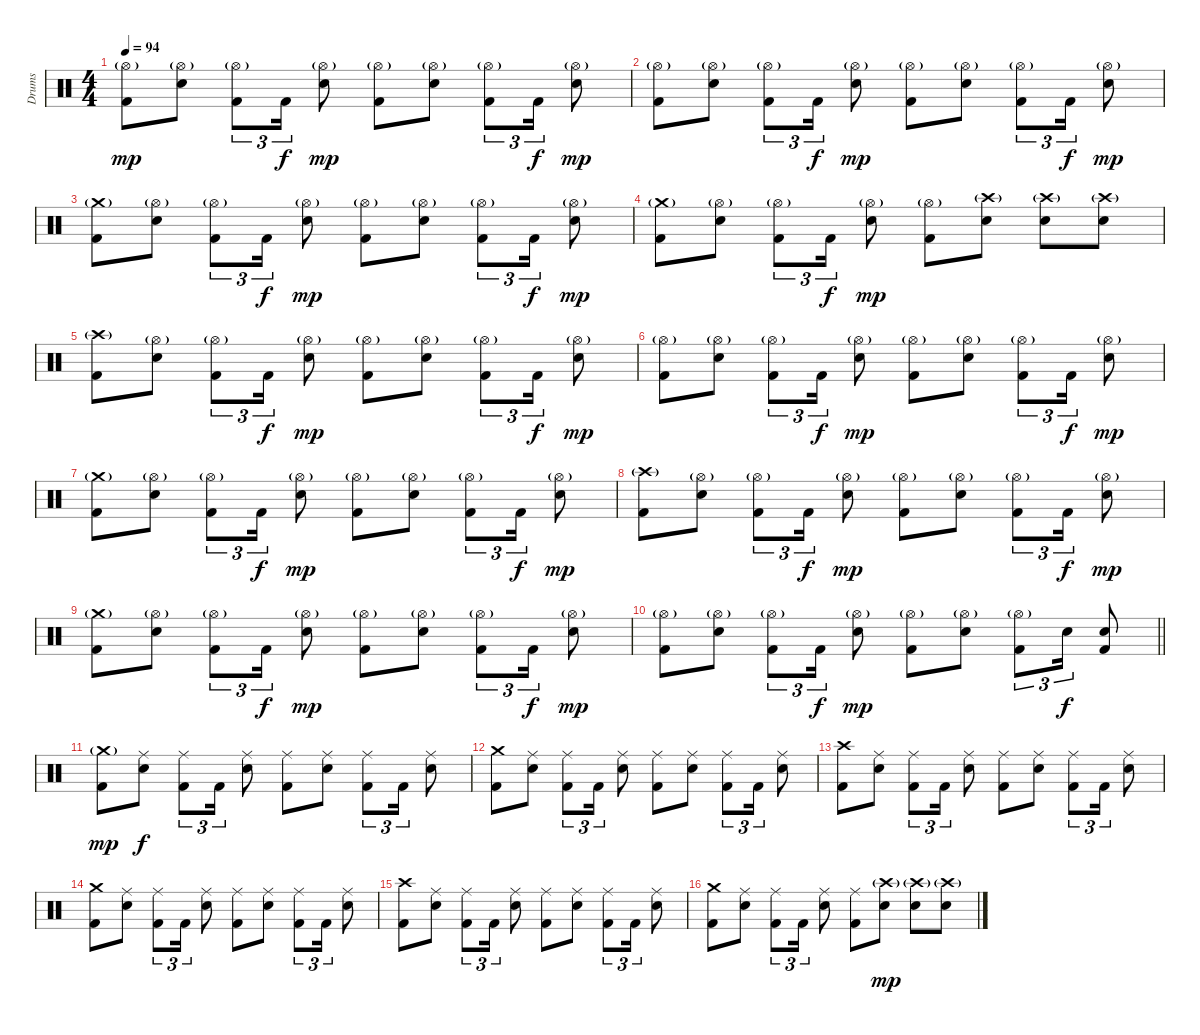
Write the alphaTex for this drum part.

\track ("Drums" "Drums") {instrument percussion}
\staff {score}
\articulation defaults
\ts (4 4)
\tempo 94
\clef neutral
\ks c
("Hi-Hat (open)"{g} "Kick (hit) 2").8{dy mp} ("Hi-Hat (open)"{g} "Electric Snare (hit)").8 ("Hi-Hat (open)"{g} "Kick (hit) 2").8{tu (3 2)} "Kick (hit) 2".16{tu (3 2) dy f} ("Hi-Hat (open)"{g} "Electric Snare (hit)").8{dy mp} ("Hi-Hat (open)"{g} "Kick (hit) 2").8 ("Hi-Hat (open)"{g} "Electric Snare (hit)").8 ("Hi-Hat (open)"{g} "Kick (hit) 2").8{tu (3 2)} "Kick (hit) 2".16{tu (3 2) dy f} ("Hi-Hat (open)"{g} "Electric Snare (hit)").8{dy mp} |
("Hi-Hat (open)"{g} "Kick (hit) 2").8 ("Hi-Hat (open)"{g} "Electric Snare (hit)").8 ("Hi-Hat (open)"{g} "Kick (hit) 2").8{tu (3 2)} "Kick (hit) 2".16{tu (3 2) dy f} ("Hi-Hat (open)"{g} "Electric Snare (hit)").8{dy mp} ("Hi-Hat (open)"{g} "Kick (hit) 2").8 ("Hi-Hat (open)"{g} "Electric Snare (hit)").8 ("Hi-Hat (open)"{g} "Kick (hit) 2").8{tu (3 2)} "Kick (hit) 2".16{tu (3 2) dy f} ("Hi-Hat (open)"{g} "Electric Snare (hit)").8{dy mp} |
("Crash medium (hit)"{g} "Kick (hit) 2").8 ("Hi-Hat (open)"{g} "Electric Snare (hit)").8 ("Hi-Hat (open)"{g} "Kick (hit) 2").8{tu (3 2)} "Kick (hit) 2".16{tu (3 2) dy f} ("Hi-Hat (open)"{g} "Electric Snare (hit)").8{dy mp} ("Hi-Hat (open)"{g} "Kick (hit) 2").8 ("Hi-Hat (open)"{g} "Electric Snare (hit)").8 ("Hi-Hat (open)"{g} "Kick (hit) 2").8{tu (3 2)} "Kick (hit) 2".16{tu (3 2) dy f} ("Hi-Hat (open)"{g} "Electric Snare (hit)").8{dy mp} |
("Crash medium (hit)"{g} "Kick (hit) 2").8 ("Hi-Hat (open)"{g} "Electric Snare (hit)").8 ("Hi-Hat (open)"{g} "Kick (hit) 2").8{tu (3 2)} "Kick (hit) 2".16{tu (3 2) dy f} ("Hi-Hat (open)"{g} "Electric Snare (hit)").8{dy mp} ("Hi-Hat (open)"{g} "Kick (hit) 2").8 ("Crash high (hit)"{g} "Electric Snare (hit)").8 ("Crash high (hit)"{g} "Electric Snare (hit)").8 ("Crash high (hit)"{g} "Electric Snare (hit)").8 |
("Crash high (hit)"{g} "Kick (hit) 2").8 ("Hi-Hat (open)"{g} "Electric Snare (hit)").8 ("Hi-Hat (open)"{g} "Kick (hit) 2").8{tu (3 2)} "Kick (hit) 2".16{tu (3 2) dy f} ("Hi-Hat (open)"{g} "Electric Snare (hit)").8{dy mp} ("Hi-Hat (open)"{g} "Kick (hit) 2").8 ("Hi-Hat (open)"{g} "Electric Snare (hit)").8 ("Hi-Hat (open)"{g} "Kick (hit) 2").8{tu (3 2)} "Kick (hit) 2".16{tu (3 2) dy f} ("Hi-Hat (open)"{g} "Electric Snare (hit)").8{dy mp} |
("Hi-Hat (open)"{g} "Kick (hit) 2").8 ("Hi-Hat (open)"{g} "Electric Snare (hit)").8 ("Hi-Hat (open)"{g} "Kick (hit) 2").8{tu (3 2)} "Kick (hit) 2".16{tu (3 2) dy f} ("Hi-Hat (open)"{g} "Electric Snare (hit)").8{dy mp} ("Hi-Hat (open)"{g} "Kick (hit) 2").8 ("Hi-Hat (open)"{g} "Electric Snare (hit)").8 ("Hi-Hat (open)"{g} "Kick (hit) 2").8{tu (3 2)} "Kick (hit) 2".16{tu (3 2) dy f} ("Hi-Hat (open)"{g} "Electric Snare (hit)").8{dy mp} |
("Crash medium (hit)"{g} "Kick (hit) 2").8 ("Hi-Hat (open)"{g} "Electric Snare (hit)").8 ("Hi-Hat (open)"{g} "Kick (hit) 2").8{tu (3 2)} "Kick (hit) 2".16{tu (3 2) dy f} ("Hi-Hat (open)"{g} "Electric Snare (hit)").8{dy mp} ("Hi-Hat (open)"{g} "Kick (hit) 2").8 ("Hi-Hat (open)"{g} "Electric Snare (hit)").8 ("Hi-Hat (open)"{g} "Kick (hit) 2").8{tu (3 2)} "Kick (hit) 2".16{tu (3 2) dy f} ("Hi-Hat (open)"{g} "Electric Snare (hit)").8{dy mp} |
("Crash high (hit)"{g} "Kick (hit) 2").8 ("Hi-Hat (open)"{g} "Electric Snare (hit)").8 ("Hi-Hat (open)"{g} "Kick (hit) 2").8{tu (3 2)} "Kick (hit) 2".16{tu (3 2) dy f} ("Hi-Hat (open)"{g} "Electric Snare (hit)").8{dy mp} ("Hi-Hat (open)"{g} "Kick (hit) 2").8 ("Hi-Hat (open)"{g} "Electric Snare (hit)").8 ("Hi-Hat (open)"{g} "Kick (hit) 2").8{tu (3 2)} "Kick (hit) 2".16{tu (3 2) dy f} ("Hi-Hat (open)"{g} "Electric Snare (hit)").8{dy mp} |
("Crash medium (hit)"{g} "Kick (hit) 2").8 ("Hi-Hat (open)"{g} "Electric Snare (hit)").8 ("Hi-Hat (open)"{g} "Kick (hit) 2").8{tu (3 2)} "Kick (hit) 2".16{tu (3 2) dy f} ("Hi-Hat (open)"{g} "Electric Snare (hit)").8{dy mp} ("Hi-Hat (open)"{g} "Kick (hit) 2").8 ("Hi-Hat (open)"{g} "Electric Snare (hit)").8 ("Hi-Hat (open)"{g} "Kick (hit) 2").8{tu (3 2)} "Kick (hit) 2".16{tu (3 2) dy f} ("Hi-Hat (open)"{g} "Electric Snare (hit)").8{dy mp} |
\barLineRight lightlight
("Hi-Hat (open)"{g} "Kick (hit) 2").8 ("Hi-Hat (open)"{g} "Electric Snare (hit)").8 ("Hi-Hat (open)"{g} "Kick (hit) 2").8{tu (3 2)} "Kick (hit) 2".16{tu (3 2) dy f} ("Hi-Hat (open)"{g} "Electric Snare (hit)").8{dy mp} ("Hi-Hat (open)"{g} "Kick (hit) 2").8 ("Hi-Hat (open)"{g} "Electric Snare (hit)").8 ("Hi-Hat (open)"{g} "Kick (hit) 2").8{tu (3 2)} "Electric Snare (hit)".16{tu (3 2) dy f} ("Electric Snare (hit)" "Kick (hit) 2").8 |
("Crash medium (hit)"{g} "Kick (hit) 2").8{dy mp} ("Ride (middle)" "Electric Snare (hit)").8{dy f} ("Ride (middle)" "Kick (hit) 2").8{tu (3 2)} "Kick (hit) 2".16{tu (3 2)} ("Ride (middle)" "Electric Snare (hit)").8 ("Ride (middle)" "Kick (hit) 2").8 ("Ride (middle)" "Electric Snare (hit)").8 ("Ride (middle)" "Kick (hit) 2").8{tu (3 2)} "Kick (hit) 2".16{tu (3 2)} ("Ride (middle)" "Electric Snare (hit)").8 |
("Crash medium (hit)" "Kick (hit) 2").8 ("Ride (middle)" "Electric Snare (hit)").8 ("Ride (middle)" "Kick (hit) 2").8{tu (3 2)} "Kick (hit) 2".16{tu (3 2)} ("Ride (middle)" "Electric Snare (hit)").8 ("Ride (middle)" "Kick (hit) 2").8 ("Ride (middle)" "Electric Snare (hit)").8 ("Ride (middle)" "Kick (hit) 2").8{tu (3 2)} "Kick (hit) 2".16{tu (3 2)} ("Ride (middle)" "Electric Snare (hit)").8 |
("Crash high (hit)" "Kick (hit) 2").8 ("Ride (middle)" "Electric Snare (hit)").8 ("Ride (middle)" "Kick (hit) 2").8{tu (3 2)} "Kick (hit) 2".16{tu (3 2)} ("Ride (middle)" "Electric Snare (hit)").8 ("Ride (middle)" "Kick (hit) 2").8 ("Ride (middle)" "Electric Snare (hit)").8 ("Ride (middle)" "Kick (hit) 2").8{tu (3 2)} "Kick (hit) 2".16{tu (3 2)} ("Ride (middle)" "Electric Snare (hit)").8 |
("Crash medium (hit)" "Kick (hit) 2").8 ("Ride (middle)" "Electric Snare (hit)").8 ("Ride (middle)" "Kick (hit) 2").8{tu (3 2)} "Kick (hit) 2".16{tu (3 2)} ("Ride (middle)" "Electric Snare (hit)").8 ("Ride (middle)" "Kick (hit) 2").8 ("Ride (middle)" "Electric Snare (hit)").8 ("Ride (middle)" "Kick (hit) 2").8{tu (3 2)} "Kick (hit) 2".16{tu (3 2)} ("Ride (middle)" "Electric Snare (hit)").8 |
("Crash high (hit)" "Kick (hit) 2").8 ("Ride (middle)" "Electric Snare (hit)").8 ("Ride (middle)" "Kick (hit) 2").8{tu (3 2)} "Kick (hit) 2".16{tu (3 2)} ("Ride (middle)" "Electric Snare (hit)").8 ("Ride (middle)" "Kick (hit) 2").8 ("Ride (middle)" "Electric Snare (hit)").8 ("Ride (middle)" "Kick (hit) 2").8{tu (3 2)} "Kick (hit) 2".16{tu (3 2)} ("Ride (middle)" "Electric Snare (hit)").8 |
("Crash medium (hit)" "Kick (hit) 2").8 ("Ride (middle)" "Electric Snare (hit)").8 ("Ride (middle)" "Kick (hit) 2").8{tu (3 2)} "Kick (hit) 2".16{tu (3 2)} ("Ride (middle)" "Electric Snare (hit)").8 ("Ride (middle)" "Kick (hit) 2").8 ("Crash high (hit)"{g} "Electric Snare (hit)").8{dy mp} ("Crash high (hit)"{g} "Electric Snare (hit)").8 ("Crash high (hit)"{g} "Electric Snare (hit)").8
